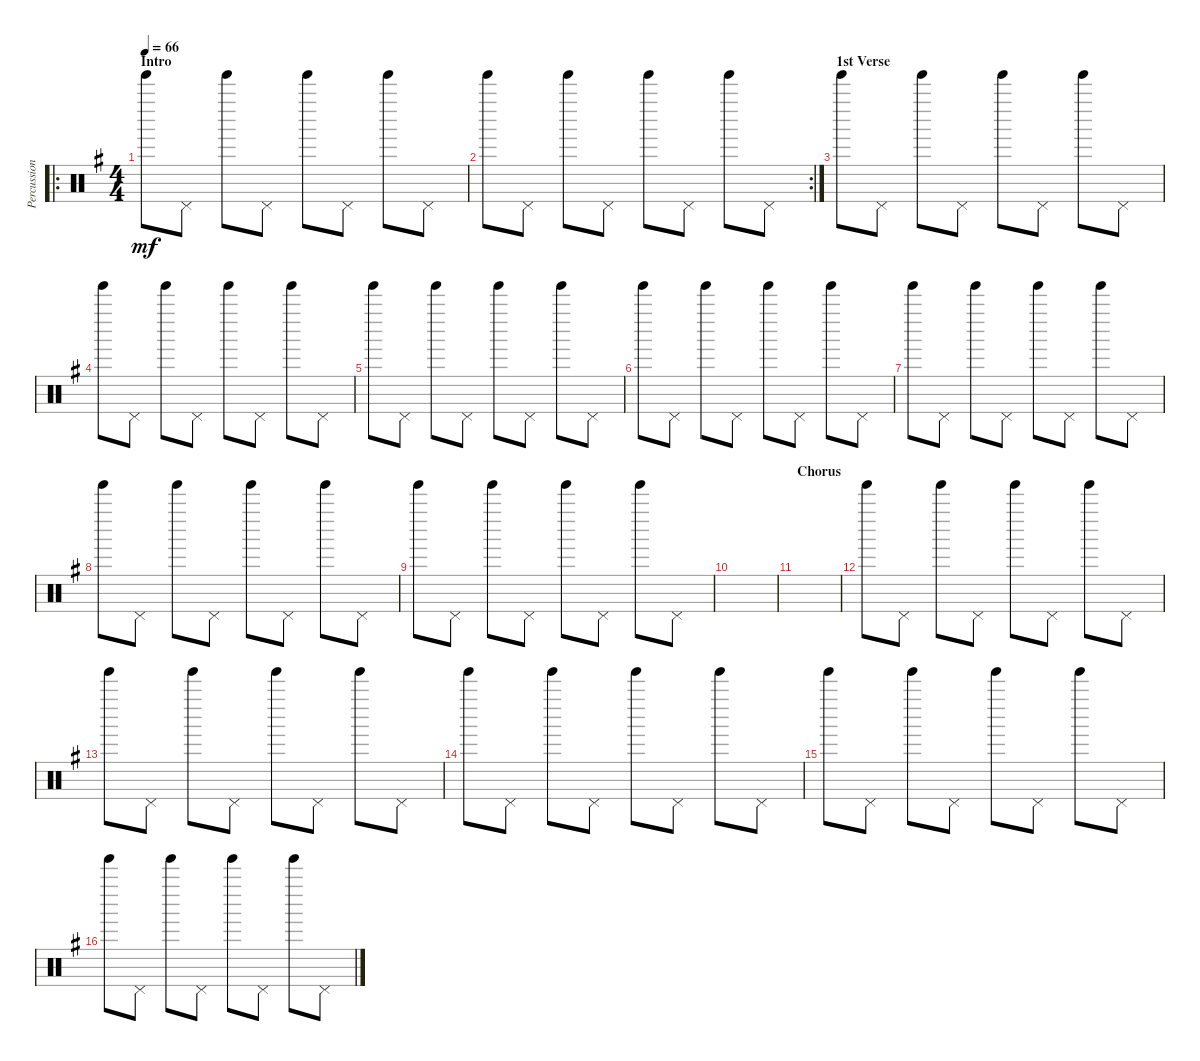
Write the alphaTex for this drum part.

\track ("Percussion" "Percussion") {instrument percussion}
\staff {score}
\articulation defaults
\ro
\ts (4 4)
\section ("" "Intro")
\tempo 66
\clef neutral
\ks g "Tinkle Bell (hit)".8{dy mf} "Pedal Hi-Hat (hit)".8 "Tinkle Bell (hit)".8 "Pedal Hi-Hat (hit)".8 "Tinkle Bell (hit)".8 "Pedal Hi-Hat (hit)".8 "Tinkle Bell (hit)".8 "Pedal Hi-Hat (hit)".8
|
\rc 2 "Tinkle Bell (hit)".8 "Pedal Hi-Hat (hit)".8 "Tinkle Bell (hit)".8 "Pedal Hi-Hat (hit)".8 "Tinkle Bell (hit)".8 "Pedal Hi-Hat (hit)".8 "Tinkle Bell (hit)".8 "Pedal Hi-Hat (hit)".8
|
\section ("" "1st Verse")
"Tinkle Bell (hit)".8 "Pedal Hi-Hat (hit)".8 "Tinkle Bell (hit)".8 "Pedal Hi-Hat (hit)".8 "Tinkle Bell (hit)".8 "Pedal Hi-Hat (hit)".8 "Tinkle Bell (hit)".8 "Pedal Hi-Hat (hit)".8 |
"Tinkle Bell (hit)".8 "Pedal Hi-Hat (hit)".8 "Tinkle Bell (hit)".8 "Pedal Hi-Hat (hit)".8 "Tinkle Bell (hit)".8 "Pedal Hi-Hat (hit)".8 "Tinkle Bell (hit)".8 "Pedal Hi-Hat (hit)".8 |
"Tinkle Bell (hit)".8 "Pedal Hi-Hat (hit)".8 "Tinkle Bell (hit)".8 "Pedal Hi-Hat (hit)".8 "Tinkle Bell (hit)".8 "Pedal Hi-Hat (hit)".8 "Tinkle Bell (hit)".8 "Pedal Hi-Hat (hit)".8 |
"Tinkle Bell (hit)".8 "Pedal Hi-Hat (hit)".8 "Tinkle Bell (hit)".8 "Pedal Hi-Hat (hit)".8 "Tinkle Bell (hit)".8 "Pedal Hi-Hat (hit)".8 "Tinkle Bell (hit)".8 "Pedal Hi-Hat (hit)".8 |
"Tinkle Bell (hit)".8 "Pedal Hi-Hat (hit)".8 "Tinkle Bell (hit)".8 "Pedal Hi-Hat (hit)".8 "Tinkle Bell (hit)".8 "Pedal Hi-Hat (hit)".8 "Tinkle Bell (hit)".8 "Pedal Hi-Hat (hit)".8 |
"Tinkle Bell (hit)".8 "Pedal Hi-Hat (hit)".8 "Tinkle Bell (hit)".8 "Pedal Hi-Hat (hit)".8 "Tinkle Bell (hit)".8 "Pedal Hi-Hat (hit)".8 "Tinkle Bell (hit)".8 "Pedal Hi-Hat (hit)".8 |
"Tinkle Bell (hit)".8 "Pedal Hi-Hat (hit)".8 "Tinkle Bell (hit)".8 "Pedal Hi-Hat (hit)".8 "Tinkle Bell (hit)".8 "Pedal Hi-Hat (hit)".8 "Tinkle Bell (hit)".8 "Pedal Hi-Hat (hit)".8 |
|
\section ("" "Chorus")
|
"Tinkle Bell (hit)".8 "Pedal Hi-Hat (hit)".8 "Tinkle Bell (hit)".8 "Pedal Hi-Hat (hit)".8 "Tinkle Bell (hit)".8 "Pedal Hi-Hat (hit)".8 "Tinkle Bell (hit)".8 "Pedal Hi-Hat (hit)".8 |
"Tinkle Bell (hit)".8 "Pedal Hi-Hat (hit)".8 "Tinkle Bell (hit)".8 "Pedal Hi-Hat (hit)".8 "Tinkle Bell (hit)".8 "Pedal Hi-Hat (hit)".8 "Tinkle Bell (hit)".8 "Pedal Hi-Hat (hit)".8 |
"Tinkle Bell (hit)".8 "Pedal Hi-Hat (hit)".8 "Tinkle Bell (hit)".8 "Pedal Hi-Hat (hit)".8 "Tinkle Bell (hit)".8 "Pedal Hi-Hat (hit)".8 "Tinkle Bell (hit)".8 "Pedal Hi-Hat (hit)".8 |
"Tinkle Bell (hit)".8 "Pedal Hi-Hat (hit)".8 "Tinkle Bell (hit)".8 "Pedal Hi-Hat (hit)".8 "Tinkle Bell (hit)".8 "Pedal Hi-Hat (hit)".8 "Tinkle Bell (hit)".8 "Pedal Hi-Hat (hit)".8 |
"Tinkle Bell (hit)".8 "Pedal Hi-Hat (hit)".8 "Tinkle Bell (hit)".8 "Pedal Hi-Hat (hit)".8 "Tinkle Bell (hit)".8 "Pedal Hi-Hat (hit)".8 "Tinkle Bell (hit)".8 "Pedal Hi-Hat (hit)".8
